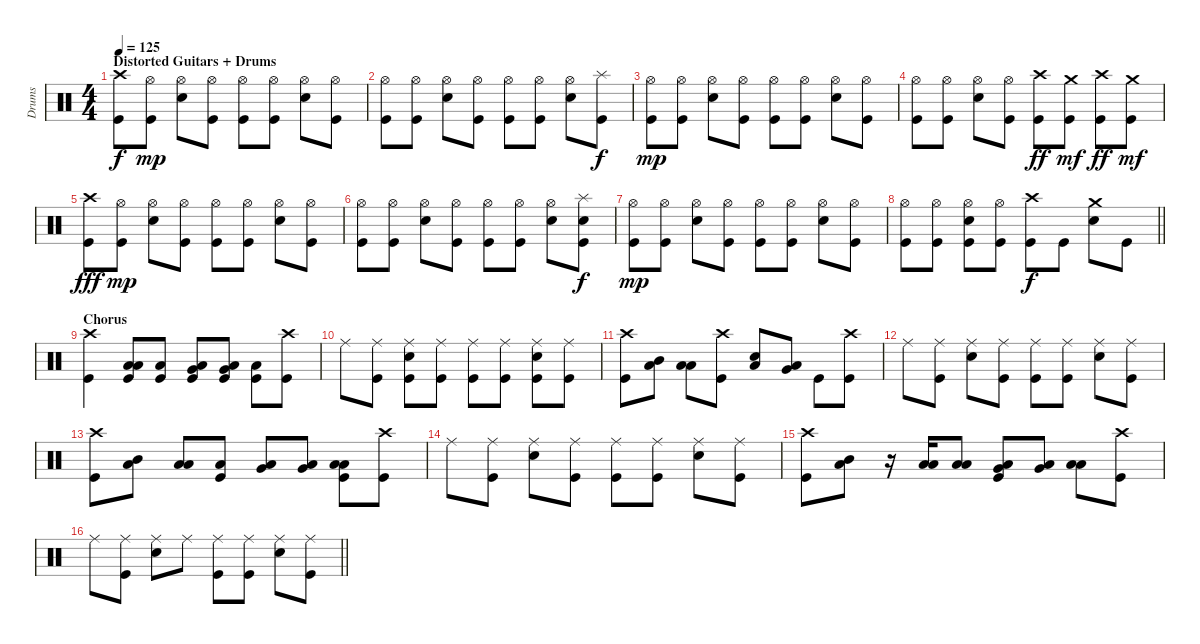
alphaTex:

\track ("Drums" "Drums") {instrument percussion}
\staff {score}
\articulation defaults
\ts (4 4)
\section ("" "Distorted Guitars + Drums")
\tempo 125
\clef neutral
\ks c
("Crash high (hit)" "Kick (hit)").8{dy f} ("Hi-Hat (open)" "Kick (hit)").8{dy mp} ("Hi-Hat (open)" "Snare (hit) 2").8 ("Hi-Hat (open)" "Kick (hit)").8 ("Hi-Hat (open)" "Kick (hit)").8 ("Hi-Hat (open)" "Kick (hit)").8 ("Hi-Hat (open)" "Snare (hit) 2").8 ("Hi-Hat (open)" "Kick (hit)").8 |
("Hi-Hat (open)" "Kick (hit)").8 ("Hi-Hat (open)" "Kick (hit)").8 ("Hi-Hat (open)" "Snare (hit) 2").8 ("Hi-Hat (open)" "Kick (hit)").8 ("Hi-Hat (open)" "Kick (hit)").8 ("Hi-Hat (open)" "Kick (hit)").8 ("Hi-Hat (open)" "Snare (hit) 2").8 ("Splash (hit)" "Kick (hit)").8{dy f} |
("Hi-Hat (open)" "Kick (hit)").8{dy mp} ("Hi-Hat (open)" "Kick (hit)").8 ("Hi-Hat (open)" "Snare (hit) 2").8 ("Hi-Hat (open)" "Kick (hit)").8 ("Hi-Hat (open)" "Kick (hit)").8 ("Hi-Hat (open)" "Kick (hit)").8 ("Hi-Hat (open)" "Snare (hit) 2").8 ("Hi-Hat (open)" "Kick (hit)").8 |
("Hi-Hat (open)" "Kick (hit)").8 ("Hi-Hat (open)" "Kick (hit)").8 ("Hi-Hat (open)" "Snare (hit) 2").8 ("Hi-Hat (open)" "Kick (hit)").8 ("Crash high (hit)" "Kick (hit)").8{dy ff} ("Crash medium (hit)" "Kick (hit)").8{dy mf} ("Crash high (hit)" "Kick (hit)").8{dy ff} ("Crash medium (hit)" "Kick (hit)").8{dy mf} |
("Crash high (hit)" "Kick (hit)").8{dy fff} ("Hi-Hat (open)" "Kick (hit)").8{dy mp} ("Hi-Hat (open)" "Snare (hit) 2").8 ("Hi-Hat (open)" "Kick (hit)").8 ("Hi-Hat (open)" "Kick (hit)").8 ("Hi-Hat (open)" "Kick (hit)").8 ("Hi-Hat (open)" "Snare (hit) 2").8 ("Hi-Hat (open)" "Kick (hit)").8 |
("Hi-Hat (open)" "Kick (hit)").8 ("Hi-Hat (open)" "Kick (hit)").8 ("Hi-Hat (open)" "Snare (hit) 2").8 ("Hi-Hat (open)" "Kick (hit)").8 ("Hi-Hat (open)" "Kick (hit)").8 ("Hi-Hat (open)" "Kick (hit)").8 ("Hi-Hat (open)" "Snare (hit) 2").8 ("Splash (hit)" "Snare (hit) 2" "Kick (hit)").8{dy f} |
("Hi-Hat (open)" "Kick (hit)").8{dy mp} ("Hi-Hat (open)" "Kick (hit)").8 ("Hi-Hat (open)" "Snare (hit) 2").8 ("Hi-Hat (open)" "Kick (hit)").8 ("Hi-Hat (open)" "Kick (hit)").8 ("Hi-Hat (open)" "Kick (hit)").8 ("Hi-Hat (open)" "Snare (hit) 2").8 ("Hi-Hat (open)" "Kick (hit)").8 |
\barLineRight lightlight
("Hi-Hat (open)" "Kick (hit)").8 ("Hi-Hat (open)" "Kick (hit)").8 ("Hi-Hat (open)" "Snare (hit) 2" "Kick (hit)").8 ("Hi-Hat (open)" "Kick (hit)").8 ("Crash high (hit)" "Kick (hit)").8{dy f} "Kick (hit)".8 ("Crash medium (hit)" "Snare (hit) 2").8 "Kick (hit)".8 |
\section ("" "Chorus")
("Crash high (hit)" "Kick (hit)").4 ("Low Tom (hit)" "Low Floor Tom (hit)" "Kick (hit)").8 ("Low Floor Tom (hit)" "Kick (hit)").8 ("Very Low Tom (hit)" "Low Floor Tom (hit)" "Kick (hit)").8 ("Very Low Tom (hit)" "Low Floor Tom (hit)" "Kick (hit)").8 ("Low Floor Tom (hit)" "Kick (hit)").8 ("Crash high (hit)" "Kick (hit)").8 |
"Ride (middle)".8 ("Ride (middle)" "Kick (hit)").8 ("Ride (middle)" "Snare (hit) 2" "Kick (hit)").8 ("Ride (middle)" "Kick (hit)").8 ("Ride (middle)" "Kick (hit)").8 ("Ride (middle)" "Kick (hit)").8 ("Ride (middle)" "Snare (hit) 2" "Kick (hit)").8 ("Ride (middle)" "Kick (hit)").8 |
("Crash high (hit)" "Kick (hit)").8 ("Mid Tom (hit)" "Low Floor Tom (hit)").8 ("Low Tom (hit)" "Low Floor Tom (hit)").8 ("Crash high (hit)" "Kick (hit)").8 ("Snare (hit) 2" "Low Floor Tom (hit)").8 ("Very Low Tom (hit)" "Low Floor Tom (hit)").8 "Kick (hit)".8 ("Crash high (hit)" "Kick (hit)").8 |
"Ride (middle)".8 ("Ride (middle)" "Kick (hit)").8 ("Ride (middle)" "Snare (hit) 2").8 ("Ride (middle)" "Kick (hit)").8 ("Ride (middle)" "Kick (hit)").8 ("Ride (middle)" "Kick (hit)").8 ("Ride (middle)" "Snare (hit) 2").8 ("Ride (middle)" "Kick (hit)").8 |
("Crash high (hit)" "Kick (hit)").8 ("Mid Tom (hit)" "Low Floor Tom (hit)").8 ("Low Tom (hit)" "Low Floor Tom (hit)").8 ("Low Tom (hit)" "Kick (hit)").8 ("Very Low Tom (hit)" "Low Floor Tom (hit)").8 ("Very Low Tom (hit)" "Low Floor Tom (hit)").8 ("Low Floor Tom (hit)" "Low Floor Tom (hit)" "Kick (hit)").8 ("Crash high (hit)" "Kick (hit)").8 |
"Ride (middle)".8 ("Ride (middle)" "Kick (hit)").8 ("Ride (middle)" "Snare (hit) 2").8 ("Ride (middle)" "Kick (hit)").8 ("Ride (middle)" "Kick (hit)").8 ("Ride (middle)" "Kick (hit)").8 ("Ride (middle)" "Snare (hit) 2").8 ("Ride (middle)" "Kick (hit)").8 |
("Crash high (hit)" "Kick (hit)").8 ("Mid Tom (hit)" "Low Floor Tom (hit)").8 r.16 ("Low Tom (hit)" "Low Floor Tom (hit)").16 ("Low Tom (hit)" "Low Floor Tom (hit)").8 ("Very Low Tom (hit)" "Low Floor Tom (hit)" "Kick (hit)").8 ("Very Low Tom (hit)" "Low Floor Tom (hit)").8 ("Low Floor Tom (hit)" "Low Floor Tom (hit)").8 ("Crash high (hit)" "Kick (hit)").8 |
\barLineRight lightlight "Ride (middle)".8
("Ride (middle)" "Kick (hit)").8 ("Ride (middle)" "Snare (hit) 2").8 "Ride (middle)".8 ("Ride (middle)" "Kick (hit)").8 ("Ride (middle)" "Kick (hit)").8 ("Ride (middle)" "Snare (hit) 2").8 ("Ride (middle)" "Kick (hit)").8
